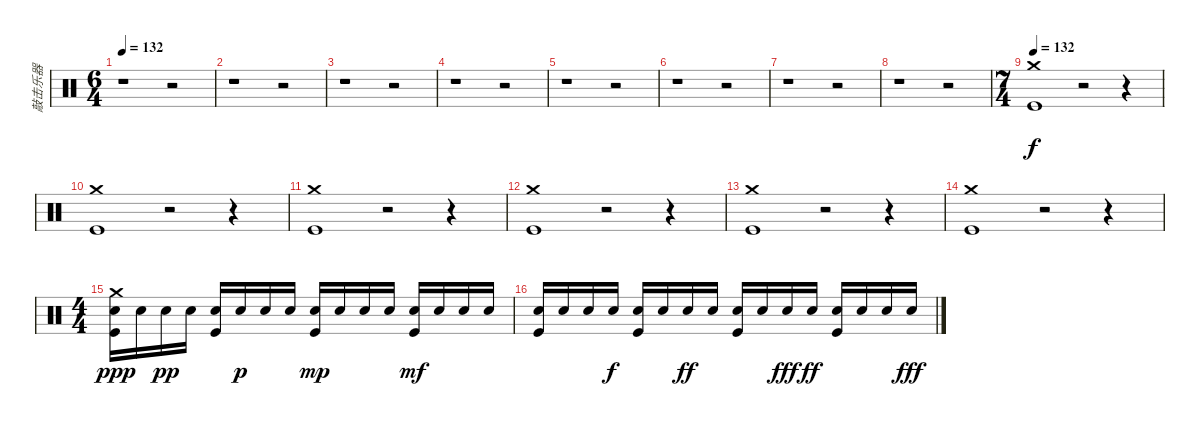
\track ("敲击乐器" "敲击乐器") {instrument percussion}
\staff {score}
\articulation defaults
\ts (6 4)
\tempo 132
\tempo 126
\tempo 132
\clef neutral
\ks c
r.1{dy f} r.2 |
r.1 r.2 |
r.1 r.2 |
r.1 r.2 |
r.1 r.2 |
r.1 r.2 |
r.1 r.2 |
r.1 r.2 |
\ts (7 4)
\tempo 132
("Crash medium (hit)" "Kick (hit)").1 r.2 r.4 |
("Crash medium (hit)" "Kick (hit)").1 r.2 r.4 |
("Crash medium (hit)" "Kick (hit)").1 r.2 r.4 |
("Crash medium (hit)" "Kick (hit)").1 r.2 r.4 |
("Crash medium (hit)" "Kick (hit)").1 r.2 r.4 |
("Crash medium (hit)" "Kick (hit)").1 r.2 r.4 |
\ts (4 4)
("Crash medium (hit)" "Snare (hit) 2" "Kick (hit)").16{dy ppp} "Snare (hit) 2".16 "Snare (hit) 2".16{dy pp} "Snare (hit) 2".16 ("Snare (hit) 2" "Kick (hit)").16 "Snare (hit) 2".16{dy p} "Snare (hit) 2".16 "Snare (hit) 2".16 ("Snare (hit) 2" "Kick (hit)").16{dy mp} "Snare (hit) 2".16 "Snare (hit) 2".16 "Snare (hit) 2".16 ("Snare (hit) 2" "Kick (hit)").16{dy mf} "Snare (hit) 2".16 "Snare (hit) 2".16 "Snare (hit) 2".16 |
("Snare (hit) 2" "Kick (hit)").16 "Snare (hit) 2".16 "Snare (hit) 2".16 "Snare (hit) 2".16{dy f} ("Snare (hit) 2" "Kick (hit)").16 "Snare (hit) 2".16 "Snare (hit) 2".16{dy ff} "Snare (hit) 2".16 ("Snare (hit) 2" "Kick (hit)").16 "Snare (hit) 2".16 "Snare (hit) 2".16{dy fff} "Snare (hit) 2".16{dy ff} ("Snare (hit) 2" "Kick (hit)").16 "Snare (hit) 2".16 "Snare (hit) 2".16 "Snare (hit) 2".16{dy fff}
